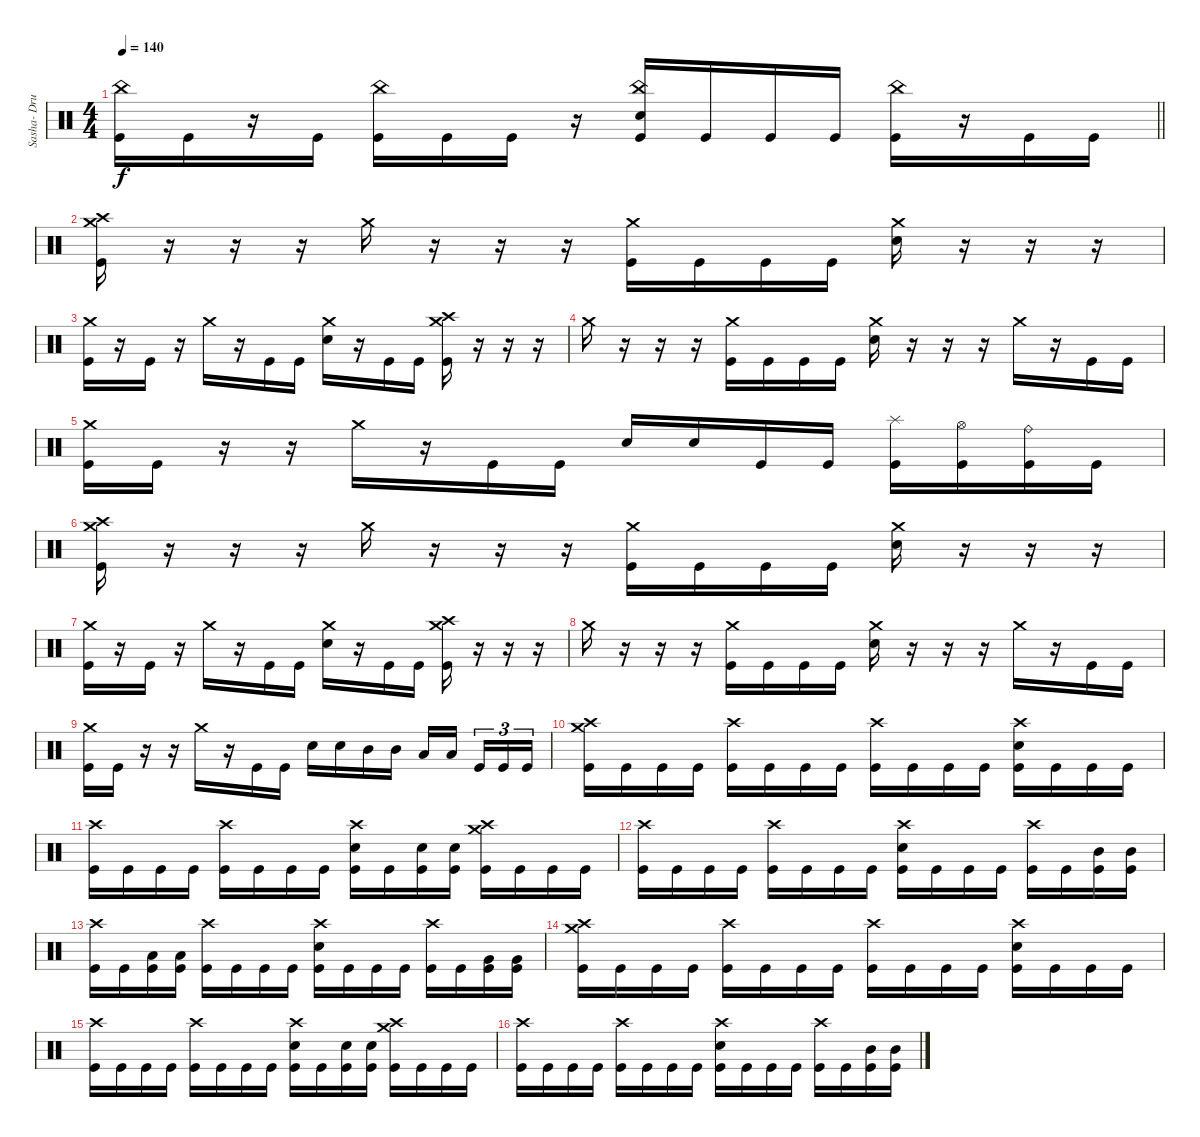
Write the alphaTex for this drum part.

\track ("Sasha- Drums" "Sasha- Dru") {instrument percussion}
\staff {score}
\articulation defaults
\ts (4 4)
\tempo 140
\clef neutral
\barLineRight lightlight
\ks c
("Kick (hit)" "China (hit)").16{dy f} "Kick (hit)".16 r.16 "Kick (hit)".16 ("Kick (hit)" "China (hit)").16 "Kick (hit)".16 "Kick (hit)".16 r.16 ("Kick (hit)" "China (hit)" "Snare (hit) 2").16 "Kick (hit)".16 "Kick (hit)".16 "Kick (hit)".16 ("Kick (hit)" "China (hit)").16 r.16 "Kick (hit)".16 "Kick (hit)".16 |
\section ("" "")
("Crash high (hit)" "Kick (hit)" "Crash medium (hit)").16 r.16 r.16 r.16 "Crash medium (hit)".16 r.16 r.16 r.16 ("Crash medium (hit)" "Kick (hit)").16 "Kick (hit)".16 "Kick (hit)".16 "Kick (hit)".16 ("Crash medium (hit)" "Snare (hit) 2").16 r.16 r.16 r.16 |
("Crash medium (hit)" "Kick (hit)").16 r.16 "Kick (hit)".16 r.16 "Crash medium (hit)".16 r.16 "Kick (hit)".16 "Kick (hit)".16 ("Crash medium (hit)" "Snare (hit) 2").16 r.16 "Kick (hit)".16 "Kick (hit)".16 ("Crash medium (hit)" "Crash high (hit)" "Kick (hit)").16 r.16 r.16 r.16 |
"Crash medium (hit)".16 r.16 r.16 r.16 ("Crash medium (hit)" "Kick (hit)").16 "Kick (hit)".16 "Kick (hit)".16 "Kick (hit)".16 ("Crash medium (hit)" "Snare (hit) 2").16 r.16 r.16 r.16 "Crash medium (hit)".16 r.16 "Kick (hit)".16 "Kick (hit)".16 |
("Crash medium (hit)" "Kick (hit)").16 "Kick (hit)".16 r.16 r.16 "Crash medium (hit)".16 r.16 "Kick (hit)".16 "Kick (hit)".16 "Snare (hit) 2".16 "Snare (hit) 2".16 "Kick (hit)".16 "Kick (hit)".16 ("Kick (hit)" "Splash (hit)").16 ("Kick (hit)" "Hi-Hat (open)").16 ("Kick (hit)" "Ride (bell)").16 "Kick (hit)".16 |
("Crash high (hit)" "Kick (hit)" "Crash medium (hit)").16 r.16 r.16 r.16 "Crash medium (hit)".16 r.16 r.16 r.16 ("Crash medium (hit)" "Kick (hit)").16 "Kick (hit)".16 "Kick (hit)".16 "Kick (hit)".16 ("Crash medium (hit)" "Snare (hit) 2").16 r.16 r.16 r.16 |
("Crash medium (hit)" "Kick (hit)").16 r.16 "Kick (hit)".16 r.16 "Crash medium (hit)".16 r.16 "Kick (hit)".16 "Kick (hit)".16 ("Crash medium (hit)" "Snare (hit) 2").16 r.16 "Kick (hit)".16 "Kick (hit)".16 ("Crash medium (hit)" "Crash high (hit)" "Kick (hit)").16 r.16 r.16 r.16 |
"Crash medium (hit)".16 r.16 r.16 r.16 ("Crash medium (hit)" "Kick (hit)").16 "Kick (hit)".16 "Kick (hit)".16 "Kick (hit)".16 ("Crash medium (hit)" "Snare (hit) 2").16 r.16 r.16 r.16 "Crash medium (hit)".16 r.16 "Kick (hit)".16 "Kick (hit)".16 |
("Crash medium (hit)" "Kick (hit)").16 "Kick (hit)".16 r.16 r.16 "Crash medium (hit)".16 r.16 "Kick (hit)".16 "Kick (hit)".16 "Snare (hit) 2".16 "Snare (hit) 2".16 "Mid Tom (hit)".16 "Mid Tom (hit)".16 "Low Tom (hit)".16 "Low Tom (hit)".16{beam splitsecondary} "Kick (hit)".16{tu (3 2)} "Kick (hit)".16{tu (3 2)} "Kick (hit)".16{tu (3 2)} |
("Crash high (hit)" "Kick (hit)" "Crash medium (hit)").16 "Kick (hit)".16 "Kick (hit)".16 "Kick (hit)".16 ("Kick (hit)" "Crash high (hit)").16 "Kick (hit)".16 "Kick (hit)".16 "Kick (hit)".16 ("Kick (hit)" "Crash high (hit)").16 "Kick (hit)".16 "Kick (hit)".16 "Kick (hit)".16 ("Snare (hit) 2" "Kick (hit)" "Crash high (hit)").16 "Kick (hit)".16 "Kick (hit)".16 "Kick (hit)".16 |
("Kick (hit)" "Crash high (hit)").16 "Kick (hit)".16 "Kick (hit)".16 "Kick (hit)".16 ("Kick (hit)" "Crash high (hit)").16 "Kick (hit)".16 "Kick (hit)".16 "Kick (hit)".16 ("Snare (hit) 2" "Kick (hit)" "Crash high (hit)").16 "Kick (hit)".16 ("Snare (hit) 2" "Kick (hit)").16 ("Snare (hit) 2" "Kick (hit)").16 ("Crash medium (hit)" "Crash high (hit)" "Kick (hit)").16 "Kick (hit)".16 "Kick (hit)".16 "Kick (hit)".16 |
("Kick (hit)" "Crash high (hit)").16 "Kick (hit)".16 "Kick (hit)".16 "Kick (hit)".16 ("Kick (hit)" "Crash high (hit)").16 "Kick (hit)".16 "Kick (hit)".16 "Kick (hit)".16 ("Snare (hit) 2" "Kick (hit)" "Crash high (hit)").16 "Kick (hit)".16 "Kick (hit)".16 "Kick (hit)".16 ("Kick (hit)" "Crash high (hit)").16 "Kick (hit)".16 ("Kick (hit)" "Mid Tom (hit)").16 ("Kick (hit)" "Mid Tom (hit)").16 |
("Kick (hit)" "Crash high (hit)").16 "Kick (hit)".16 ("Kick (hit)" "Low Tom (hit)").16 ("Kick (hit)" "Low Tom (hit)").16 ("Kick (hit)" "Crash high (hit)").16 "Kick (hit)".16 "Kick (hit)".16 "Kick (hit)".16 ("Snare (hit) 2" "Kick (hit)" "Crash high (hit)").16 "Kick (hit)".16 "Kick (hit)".16 "Kick (hit)".16 ("Kick (hit)" "Crash high (hit)").16 "Kick (hit)".16 ("Kick (hit)" "Very Low Tom (hit)").16 ("Kick (hit)" "Very Low Tom (hit)").16 |
("Crash high (hit)" "Kick (hit)" "Crash medium (hit)").16 "Kick (hit)".16 "Kick (hit)".16 "Kick (hit)".16 ("Kick (hit)" "Crash high (hit)").16 "Kick (hit)".16 "Kick (hit)".16 "Kick (hit)".16 ("Kick (hit)" "Crash high (hit)").16 "Kick (hit)".16 "Kick (hit)".16 "Kick (hit)".16 ("Snare (hit) 2" "Kick (hit)" "Crash high (hit)").16 "Kick (hit)".16 "Kick (hit)".16 "Kick (hit)".16 |
("Kick (hit)" "Crash high (hit)").16 "Kick (hit)".16 "Kick (hit)".16 "Kick (hit)".16 ("Kick (hit)" "Crash high (hit)").16 "Kick (hit)".16 "Kick (hit)".16 "Kick (hit)".16 ("Snare (hit) 2" "Kick (hit)" "Crash high (hit)").16 "Kick (hit)".16 ("Snare (hit) 2" "Kick (hit)").16 ("Snare (hit) 2" "Kick (hit)").16 ("Crash medium (hit)" "Crash high (hit)" "Kick (hit)").16 "Kick (hit)".16 "Kick (hit)".16 "Kick (hit)".16 |
("Kick (hit)" "Crash high (hit)").16 "Kick (hit)".16 "Kick (hit)".16 "Kick (hit)".16 ("Kick (hit)" "Crash high (hit)").16 "Kick (hit)".16 "Kick (hit)".16 "Kick (hit)".16 ("Snare (hit) 2" "Kick (hit)" "Crash high (hit)").16 "Kick (hit)".16 "Kick (hit)".16 "Kick (hit)".16 ("Kick (hit)" "Crash high (hit)").16 "Kick (hit)".16 ("Kick (hit)" "Mid Tom (hit)").16 ("Kick (hit)" "Mid Tom (hit)").16
